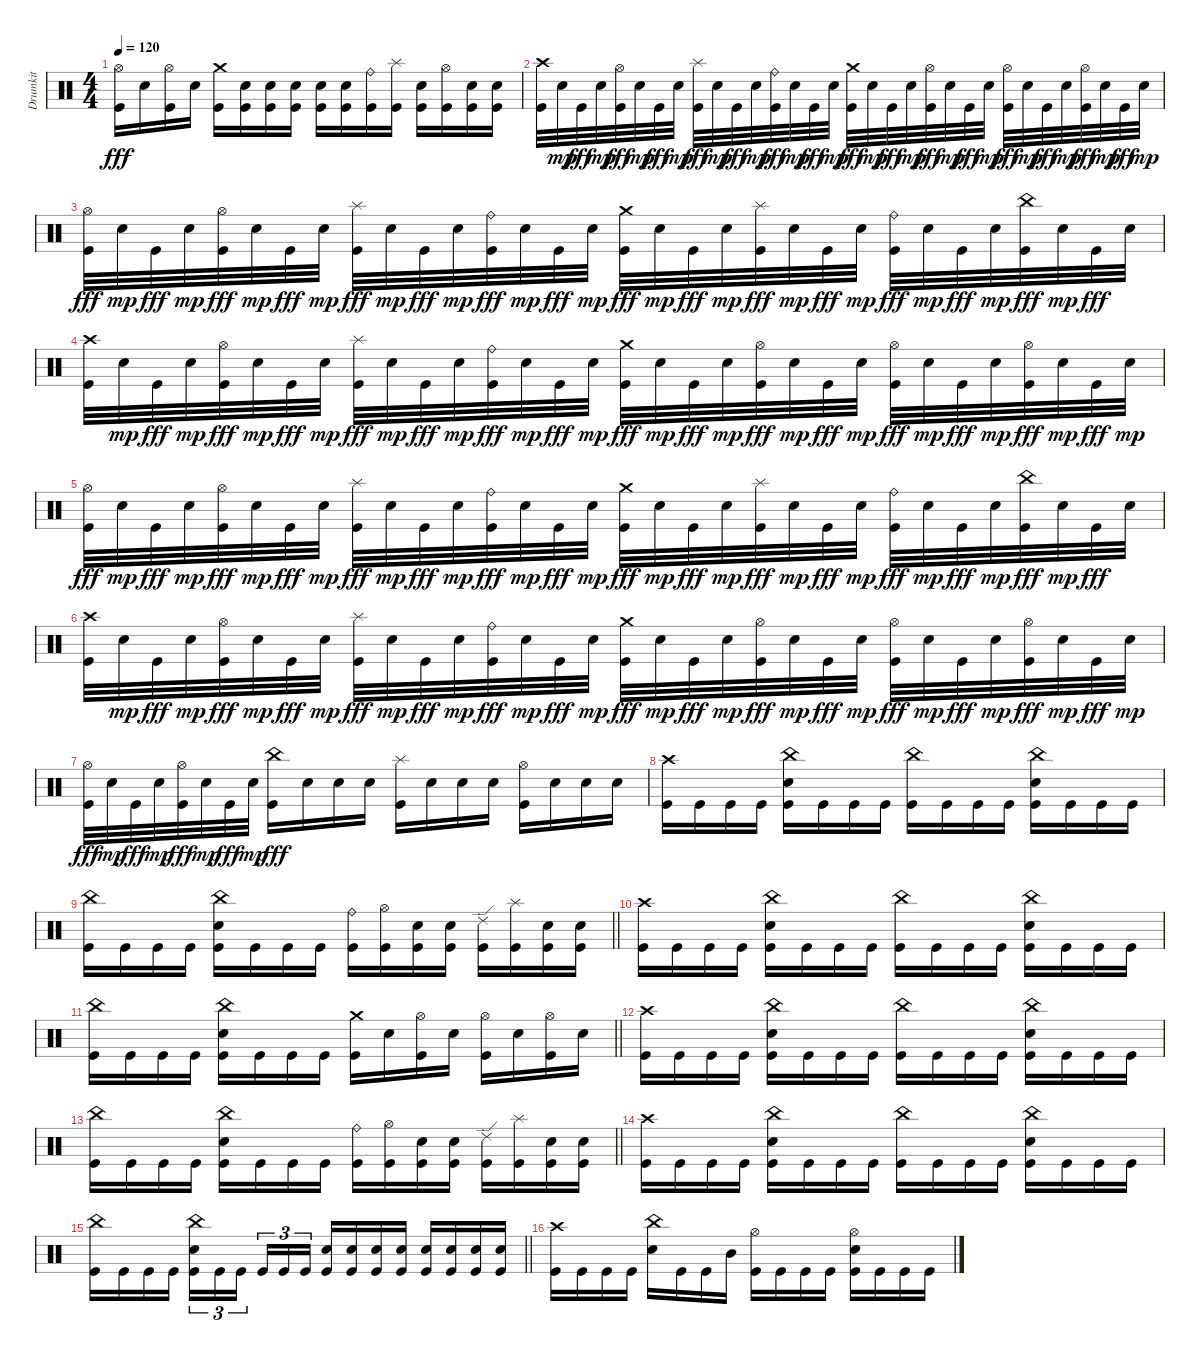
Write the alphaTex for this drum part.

\track ("Drumkit" "Drumkit") {instrument percussion}
\staff {score}
\articulation defaults
\ts (4 4)
\tempo 120
\clef neutral
\ks c
("Hi-Hat (open)" "Kick (hit)").16{dy fff} "Snare (hit) 2".16 ("Hi-Hat (open)" "Kick (hit)").16 "Snare (hit) 2".16 ("Crash medium (hit)" "Kick (hit)").16 ("Snare (hit) 2" "Kick (hit)").16 ("Snare (hit) 2" "Kick (hit)").16 ("Snare (hit) 2" "Kick (hit)").16 ("Snare (hit) 2" "Kick (hit)").16 ("Snare (hit) 2" "Kick (hit)").16 ("Ride (bell)" "Kick (hit)").16 ("Splash (hit)" "Kick (hit)").16 ("Snare (hit) 2" "Kick (hit)").16 ("Hi-Hat (open)" "Kick (hit)").16 ("Snare (hit) 2" "Kick (hit)").16 ("Snare (hit) 2" "Kick (hit)").16 |
("Crash high (hit)" "Kick (hit)").32 "Snare (hit) 2".32{dy mp} "Kick (hit)".32{dy fff} "Snare (hit) 2".32{dy mp} ("Hi-Hat (open)" "Kick (hit)").32{dy fff} "Snare (hit) 2".32{dy mp} "Kick (hit)".32{dy fff} "Snare (hit) 2".32{dy mp} ("Splash (hit)" "Kick (hit)").32{dy fff} "Snare (hit) 2".32{dy mp} "Kick (hit)".32{dy fff} "Snare (hit) 2".32{dy mp} ("Ride (bell)" "Kick (hit)").32{dy fff} "Snare (hit) 2".32{dy mp} "Kick (hit)".32{dy fff} "Snare (hit) 2".32{dy mp} ("Crash medium (hit)" "Kick (hit)").32{dy fff} "Snare (hit) 2".32{dy mp} "Kick (hit)".32{dy fff} "Snare (hit) 2".32{dy mp} ("Hi-Hat (open)" "Kick (hit)").32{dy fff} "Snare (hit) 2".32{dy mp} "Kick (hit)".32{dy fff} "Snare (hit) 2".32{dy mp} ("Hi-Hat (open)" "Kick (hit)").32{dy fff} "Snare (hit) 2".32{dy mp} "Kick (hit)".32{dy fff} "Snare (hit) 2".32{dy mp} ("Hi-Hat (open)" "Kick (hit)").32{dy fff} "Snare (hit) 2".32{dy mp} "Kick (hit)".32{dy fff} "Snare (hit) 2".32{dy mp} |
("Hi-Hat (open)" "Kick (hit)").32{dy fff} "Snare (hit) 2".32{dy mp} "Kick (hit)".32{dy fff} "Snare (hit) 2".32{dy mp} ("Hi-Hat (open)" "Kick (hit)").32{dy fff} "Snare (hit) 2".32{dy mp} "Kick (hit)".32{dy fff} "Snare (hit) 2".32{dy mp} ("Splash (hit)" "Kick (hit)").32{dy fff} "Snare (hit) 2".32{dy mp} "Kick (hit)".32{dy fff} "Snare (hit) 2".32{dy mp} ("Ride (bell)" "Kick (hit)").32{dy fff} "Snare (hit) 2".32{dy mp} "Kick (hit)".32{dy fff} "Snare (hit) 2".32{dy mp} ("Crash medium (hit)" "Kick (hit)").32{dy fff} "Snare (hit) 2".32{dy mp} "Kick (hit)".32{dy fff} "Snare (hit) 2".32{dy mp} ("Splash (hit)" "Kick (hit)").32{dy fff} "Snare (hit) 2".32{dy mp} "Kick (hit)".32{dy fff} "Snare (hit) 2".32{dy mp} ("Ride (bell)" "Kick (hit)").32{dy fff} "Snare (hit) 2".32{dy mp} "Kick (hit)".32{dy fff} "Snare (hit) 2".32{dy mp} ("China (hit)" "Kick (hit)").32{dy fff} "Snare (hit) 2".32{dy mp} "Kick (hit)".32{dy fff} "Snare (hit) 2".32 |
("Crash high (hit)" "Kick (hit)").32 "Snare (hit) 2".32{dy mp} "Kick (hit)".32{dy fff} "Snare (hit) 2".32{dy mp} ("Hi-Hat (open)" "Kick (hit)").32{dy fff} "Snare (hit) 2".32{dy mp} "Kick (hit)".32{dy fff} "Snare (hit) 2".32{dy mp} ("Splash (hit)" "Kick (hit)").32{dy fff} "Snare (hit) 2".32{dy mp} "Kick (hit)".32{dy fff} "Snare (hit) 2".32{dy mp} ("Ride (bell)" "Kick (hit)").32{dy fff} "Snare (hit) 2".32{dy mp} "Kick (hit)".32{dy fff} "Snare (hit) 2".32{dy mp} ("Crash medium (hit)" "Kick (hit)").32{dy fff} "Snare (hit) 2".32{dy mp} "Kick (hit)".32{dy fff} "Snare (hit) 2".32{dy mp} ("Hi-Hat (open)" "Kick (hit)").32{dy fff} "Snare (hit) 2".32{dy mp} "Kick (hit)".32{dy fff} "Snare (hit) 2".32{dy mp} ("Hi-Hat (open)" "Kick (hit)").32{dy fff} "Snare (hit) 2".32{dy mp} "Kick (hit)".32{dy fff} "Snare (hit) 2".32{dy mp} ("Hi-Hat (open)" "Kick (hit)").32{dy fff} "Snare (hit) 2".32{dy mp} "Kick (hit)".32{dy fff} "Snare (hit) 2".32{dy mp} |
("Hi-Hat (open)" "Kick (hit)").32{dy fff} "Snare (hit) 2".32{dy mp} "Kick (hit)".32{dy fff} "Snare (hit) 2".32{dy mp} ("Hi-Hat (open)" "Kick (hit)").32{dy fff} "Snare (hit) 2".32{dy mp} "Kick (hit)".32{dy fff} "Snare (hit) 2".32{dy mp} ("Splash (hit)" "Kick (hit)").32{dy fff} "Snare (hit) 2".32{dy mp} "Kick (hit)".32{dy fff} "Snare (hit) 2".32{dy mp} ("Ride (bell)" "Kick (hit)").32{dy fff} "Snare (hit) 2".32{dy mp} "Kick (hit)".32{dy fff} "Snare (hit) 2".32{dy mp} ("Crash medium (hit)" "Kick (hit)").32{dy fff} "Snare (hit) 2".32{dy mp} "Kick (hit)".32{dy fff} "Snare (hit) 2".32{dy mp} ("Splash (hit)" "Kick (hit)").32{dy fff} "Snare (hit) 2".32{dy mp} "Kick (hit)".32{dy fff} "Snare (hit) 2".32{dy mp} ("Ride (bell)" "Kick (hit)").32{dy fff} "Snare (hit) 2".32{dy mp} "Kick (hit)".32{dy fff} "Snare (hit) 2".32{dy mp} ("China (hit)" "Kick (hit)").32{dy fff} "Snare (hit) 2".32{dy mp} "Kick (hit)".32{dy fff} "Snare (hit) 2".32 |
("Crash high (hit)" "Kick (hit)").32 "Snare (hit) 2".32{dy mp} "Kick (hit)".32{dy fff} "Snare (hit) 2".32{dy mp} ("Hi-Hat (open)" "Kick (hit)").32{dy fff} "Snare (hit) 2".32{dy mp} "Kick (hit)".32{dy fff} "Snare (hit) 2".32{dy mp} ("Splash (hit)" "Kick (hit)").32{dy fff} "Snare (hit) 2".32{dy mp} "Kick (hit)".32{dy fff} "Snare (hit) 2".32{dy mp} ("Ride (bell)" "Kick (hit)").32{dy fff} "Snare (hit) 2".32{dy mp} "Kick (hit)".32{dy fff} "Snare (hit) 2".32{dy mp} ("Crash medium (hit)" "Kick (hit)").32{dy fff} "Snare (hit) 2".32{dy mp} "Kick (hit)".32{dy fff} "Snare (hit) 2".32{dy mp} ("Hi-Hat (open)" "Kick (hit)").32{dy fff} "Snare (hit) 2".32{dy mp} "Kick (hit)".32{dy fff} "Snare (hit) 2".32{dy mp} ("Hi-Hat (open)" "Kick (hit)").32{dy fff} "Snare (hit) 2".32{dy mp} "Kick (hit)".32{dy fff} "Snare (hit) 2".32{dy mp} ("Hi-Hat (open)" "Kick (hit)").32{dy fff} "Snare (hit) 2".32{dy mp} "Kick (hit)".32{dy fff} "Snare (hit) 2".32{dy mp} |
("Hi-Hat (open)" "Kick (hit)").32{dy fff} "Snare (hit) 2".32{dy mp} "Kick (hit)".32{dy fff} "Snare (hit) 2".32{dy mp} ("Hi-Hat (open)" "Kick (hit)").32{dy fff} "Snare (hit) 2".32{dy mp} "Kick (hit)".32{dy fff} "Snare (hit) 2".32{dy mp} ("China (hit)" "Kick (hit)").16{dy fff} "Snare (hit) 2".16 "Snare (hit) 2".16 "Snare (hit) 2".16 ("Splash (hit)" "Kick (hit)").16 "Snare (hit) 2".16 "Snare (hit) 2".16 "Snare (hit) 2".16 ("Hi-Hat (open)" "Kick (hit)").16 "Snare (hit) 2".16 "Snare (hit) 2".16 "Snare (hit) 2".16 |
("Crash high (hit)" "Kick (hit)").16 "Kick (hit)".16 "Kick (hit)".16 "Kick (hit)".16 ("China (hit)" "Snare (hit) 2" "Kick (hit)").16 "Kick (hit)".16 "Kick (hit)".16 "Kick (hit)".16 ("China (hit)" "Kick (hit)").16 "Kick (hit)".16 "Kick (hit)".16 "Kick (hit)".16 ("China (hit)" "Snare (hit) 2" "Kick (hit)").16 "Kick (hit)".16 "Kick (hit)".16 "Kick (hit)".16 |
\barLineRight lightlight
("China (hit)" "Kick (hit)").16 "Kick (hit)".16 "Kick (hit)".16 "Kick (hit)".16 ("China (hit)" "Snare (hit) 2" "Kick (hit)").16 "Kick (hit)".16 "Kick (hit)".16 "Kick (hit)".16 ("Ride (bell)" "Kick (hit)").16 ("Hi-Hat (open)" "Kick (hit)").16 ("Snare (hit) 2" "Kick (hit)").16 ("Snare (hit) 2" "Kick (hit)").16 ("Ride (edge) 2" "Kick (hit)").16 ("Splash (hit)" "Kick (hit)").16 ("Snare (hit) 2" "Kick (hit)").16 ("Snare (hit) 2" "Kick (hit)").16 |
("Crash high (hit)" "Kick (hit)").16 "Kick (hit)".16 "Kick (hit)".16 "Kick (hit)".16 ("China (hit)" "Snare (hit) 2" "Kick (hit)").16 "Kick (hit)".16 "Kick (hit)".16 "Kick (hit)".16 ("China (hit)" "Kick (hit)").16 "Kick (hit)".16 "Kick (hit)".16 "Kick (hit)".16 ("China (hit)" "Snare (hit) 2" "Kick (hit)").16 "Kick (hit)".16 "Kick (hit)".16 "Kick (hit)".16 |
\barLineRight lightlight
("China (hit)" "Kick (hit)").16 "Kick (hit)".16 "Kick (hit)".16 "Kick (hit)".16 ("China (hit)" "Snare (hit) 2" "Kick (hit)").16 "Kick (hit)".16 "Kick (hit)".16 "Kick (hit)".16 ("Crash medium (hit)" "Kick (hit)").16 "Snare (hit) 2".16 ("Hi-Hat (open)" "Kick (hit)").16 "Snare (hit) 2".16 ("Hi-Hat (open)" "Kick (hit)").16 "Snare (hit) 2".16 ("Hi-Hat (open)" "Kick (hit)").16 "Snare (hit) 2".16 |
("Crash high (hit)" "Kick (hit)").16 "Kick (hit)".16 "Kick (hit)".16 "Kick (hit)".16 ("China (hit)" "Snare (hit) 2" "Kick (hit)").16 "Kick (hit)".16 "Kick (hit)".16 "Kick (hit)".16 ("China (hit)" "Kick (hit)").16 "Kick (hit)".16 "Kick (hit)".16 "Kick (hit)".16 ("China (hit)" "Snare (hit) 2" "Kick (hit)").16 "Kick (hit)".16 "Kick (hit)".16 "Kick (hit)".16 |
\barLineRight lightlight
("China (hit)" "Kick (hit)").16 "Kick (hit)".16 "Kick (hit)".16 "Kick (hit)".16 ("China (hit)" "Snare (hit) 2" "Kick (hit)").16 "Kick (hit)".16 "Kick (hit)".16 "Kick (hit)".16 ("Ride (bell)" "Kick (hit)").16 ("Hi-Hat (open)" "Kick (hit)").16 ("Snare (hit) 2" "Kick (hit)").16 ("Snare (hit) 2" "Kick (hit)").16 ("Ride (edge) 2" "Kick (hit)").16 ("Splash (hit)" "Kick (hit)").16 ("Snare (hit) 2" "Kick (hit)").16 ("Snare (hit) 2" "Kick (hit)").16 |
("Crash high (hit)" "Kick (hit)").16 "Kick (hit)".16 "Kick (hit)".16 "Kick (hit)".16 ("China (hit)" "Snare (hit) 2" "Kick (hit)").16 "Kick (hit)".16 "Kick (hit)".16 "Kick (hit)".16 ("China (hit)" "Kick (hit)").16 "Kick (hit)".16 "Kick (hit)".16 "Kick (hit)".16 ("China (hit)" "Snare (hit) 2" "Kick (hit)").16 "Kick (hit)".16 "Kick (hit)".16 "Kick (hit)".16 |
\barLineRight lightlight
("China (hit)" "Kick (hit)").16 "Kick (hit)".16 "Kick (hit)".16 "Kick (hit)".16 ("China (hit)" "Snare (hit) 2" "Kick (hit)").16{tu (3 2)} "Kick (hit)".16{tu (3 2)} "Kick (hit)".16{tu (3 2)} "Kick (hit)".16{tu (3 2)} "Kick (hit)".16{tu (3 2)} "Kick (hit)".16{tu (3 2)} ("Snare (hit) 2" "Kick (hit)").16 ("Snare (hit) 2" "Kick (hit)").16 ("Snare (hit) 2" "Kick (hit)").16 ("Snare (hit) 2" "Kick (hit)").16 ("Snare (hit) 2" "Kick (hit)").16 ("Snare (hit) 2" "Kick (hit)").16 ("Snare (hit) 2" "Kick (hit)").16 ("Snare (hit) 2" "Kick (hit)").16 |
("Crash high (hit)" "Kick (hit)").16 "Kick (hit)".16 "Kick (hit)".16 "Kick (hit)".16 ("China (hit)" "Snare (hit) 2").16 "Kick (hit)".16 "Kick (hit)".16 "Mid Tom (hit)".16 ("Hi-Hat (open)" "Kick (hit)").16 "Kick (hit)".16 "Kick (hit)".16 "Kick (hit)".16 ("Hi-Hat (open)" "Snare (hit) 2" "Kick (hit)").16 "Kick (hit)".16 "Kick (hit)".16 "Kick (hit)".16
